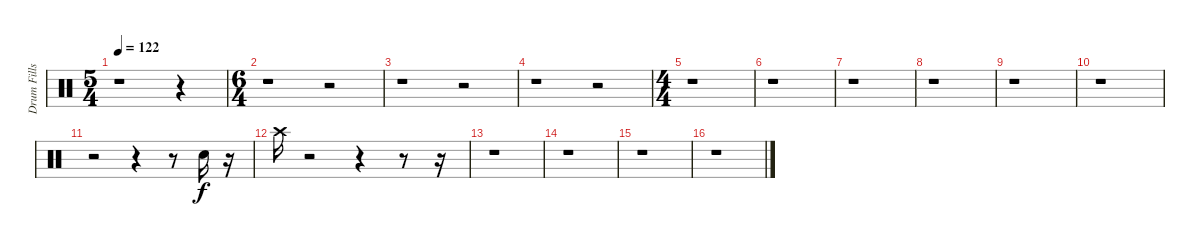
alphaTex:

\track ("Drum Fills etc" "Drum Fills") {instrument percussion}
\staff {score}
\articulation defaults
\ts (5 4)
\tempo 122
\clef neutral
\ks c
r.1{dy f} r.4 |
\ts (6 4)
r.1 r.2 |
r.1 r.2 |
r.1 r.2 |
\ts (4 4)
r.1 |
r.1 |
r.1 |
r.1 |
r.1 |
r.1 |
r.2 r.4 r.8 "Electric Snare (hit)".16 r.16 |
"Crash high (hit)".16 r.2 r.4 r.8 r.16 |
r.1 |
r.1 |
r.1 |
r.1
